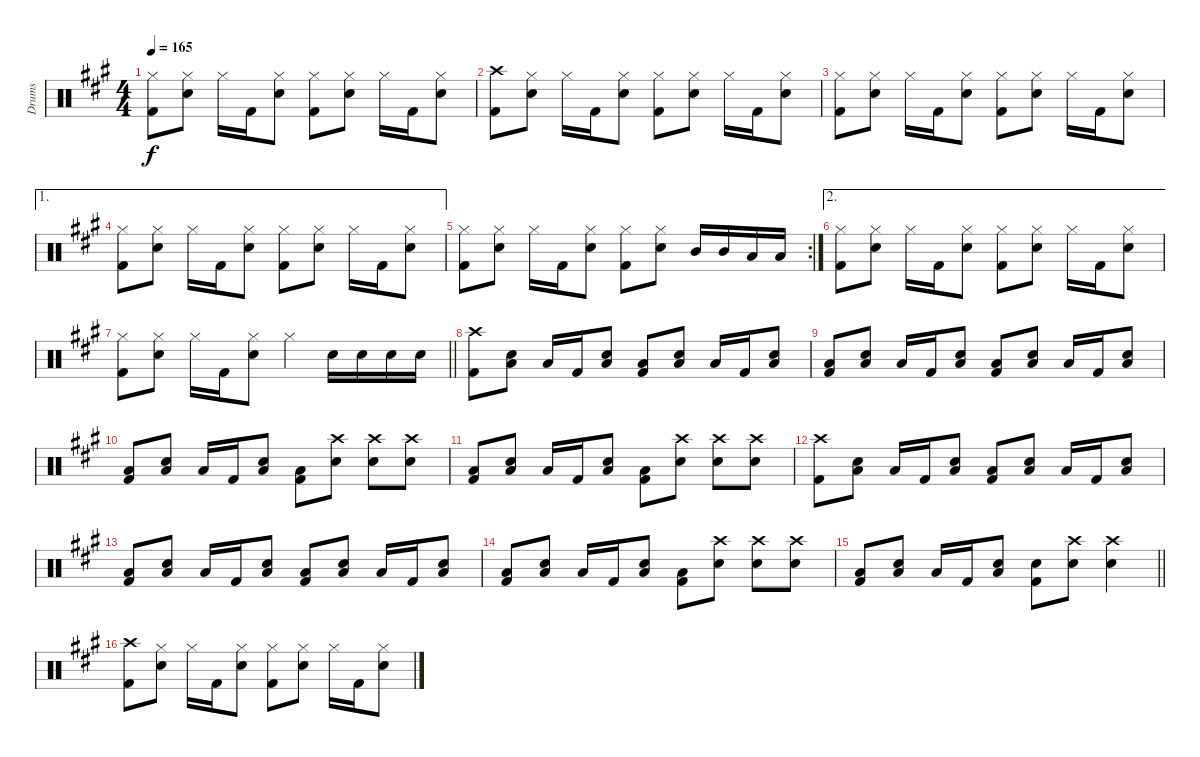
\track ("Drums" "Drums") {instrument percussion}
\staff {score}
\articulation defaults
\ts (4 4)
\tempo 165
\clef neutral
\ks a
("Hi-Hat (closed)" "Kick (hit) 2").8{dy f} ("Hi-Hat (closed)" "Snare (hit) 2").8 "Hi-Hat (closed)".16 "Kick (hit) 2".16 ("Hi-Hat (closed)" "Snare (hit) 2").8 ("Hi-Hat (closed)" "Kick (hit) 2").8 ("Hi-Hat (closed)" "Snare (hit) 2").8 "Hi-Hat (closed)".16 "Kick (hit) 2".16 ("Hi-Hat (closed)" "Snare (hit) 2").8 |
("Crash high (hit)" "Kick (hit) 2").8 ("Hi-Hat (closed)" "Snare (hit) 2").8 "Hi-Hat (closed)".16 "Kick (hit) 2".16 ("Hi-Hat (closed)" "Snare (hit) 2").8 ("Hi-Hat (closed)" "Kick (hit) 2").8 ("Hi-Hat (closed)" "Snare (hit) 2").8 "Hi-Hat (closed)".16 "Kick (hit) 2".16 ("Hi-Hat (closed)" "Snare (hit) 2").8 |
("Hi-Hat (closed)" "Kick (hit) 2").8 ("Hi-Hat (closed)" "Snare (hit) 2").8 "Hi-Hat (closed)".16 "Kick (hit) 2".16 ("Hi-Hat (closed)" "Snare (hit) 2").8 ("Hi-Hat (closed)" "Kick (hit) 2").8 ("Hi-Hat (closed)" "Snare (hit) 2").8 "Hi-Hat (closed)".16 "Kick (hit) 2".16 ("Hi-Hat (closed)" "Snare (hit) 2").8 |
\ae 1
("Hi-Hat (closed)" "Kick (hit) 2").8 ("Hi-Hat (closed)" "Snare (hit) 2").8 "Hi-Hat (closed)".16 "Kick (hit) 2".16 ("Hi-Hat (closed)" "Snare (hit) 2").8 ("Hi-Hat (closed)" "Kick (hit) 2").8 ("Hi-Hat (closed)" "Snare (hit) 2").8 "Hi-Hat (closed)".16 "Kick (hit) 2".16 ("Hi-Hat (closed)" "Snare (hit) 2").8 |
\rc 2
("Hi-Hat (closed)" "Kick (hit) 2").8 ("Hi-Hat (closed)" "Snare (hit) 2").8 "Hi-Hat (closed)".16 "Kick (hit) 2".16 ("Hi-Hat (closed)" "Snare (hit) 2").8 ("Hi-Hat (closed)" "Kick (hit) 2").8 ("Hi-Hat (closed)" "Snare (hit) 2").8 "Mid Tom (hit)".16 "Mid Tom (hit)".16 "Low Tom (hit)".16 "Low Tom (hit)".16 |
\ae 2
("Hi-Hat (closed)" "Kick (hit) 2").8 ("Hi-Hat (closed)" "Snare (hit) 2").8 "Hi-Hat (closed)".16 "Kick (hit) 2".16 ("Hi-Hat (closed)" "Snare (hit) 2").8 ("Hi-Hat (closed)" "Kick (hit) 2").8 ("Hi-Hat (closed)" "Snare (hit) 2").8 "Hi-Hat (closed)".16 "Kick (hit) 2".16 ("Hi-Hat (closed)" "Snare (hit) 2").8 |
\barLineRight lightlight
("Hi-Hat (closed)" "Kick (hit) 2").8 ("Hi-Hat (closed)" "Snare (hit) 2").8 "Hi-Hat (closed)".16 "Kick (hit) 2".16 ("Hi-Hat (closed)" "Snare (hit) 2").8 "Hi-Hat (closed)".4 "Snare (hit) 2".16 "Snare (hit) 2".16 "Snare (hit) 2".16 "Snare (hit) 2".16 |
("Crash high (hit)" "Kick (hit) 2").8 ("Snare (hit) 2" "Low Floor Tom (hit)").8 "Low Floor Tom (hit)".16 "Kick (hit) 2".16 ("Snare (hit) 2" "Low Floor Tom (hit)").8 ("Low Floor Tom (hit)" "Kick (hit) 2").8 ("Snare (hit) 2" "Low Floor Tom (hit)").8 "Low Floor Tom (hit)".16 "Kick (hit) 2".16 ("Snare (hit) 2" "Low Floor Tom (hit)").8 |
("Low Floor Tom (hit)" "Kick (hit) 2").8 ("Snare (hit) 2" "Low Floor Tom (hit)").8 "Low Floor Tom (hit)".16 "Kick (hit) 2".16 ("Snare (hit) 2" "Low Floor Tom (hit)").8 ("Low Floor Tom (hit)" "Kick (hit) 2").8 ("Snare (hit) 2" "Low Floor Tom (hit)").8 "Low Floor Tom (hit)".16 "Kick (hit) 2".16 ("Snare (hit) 2" "Low Floor Tom (hit)").8 |
("Low Floor Tom (hit)" "Kick (hit) 2").8 ("Snare (hit) 2" "Low Floor Tom (hit)").8 "Low Floor Tom (hit)".16 "Kick (hit) 2".16 ("Snare (hit) 2" "Low Floor Tom (hit)").8 ("Low Floor Tom (hit)" "Kick (hit) 2").8 ("Crash high (hit)" "Snare (hit) 2").8 ("Crash high (hit)" "Snare (hit) 2").8 ("Crash high (hit)" "Snare (hit) 2").8 |
("Low Floor Tom (hit)" "Kick (hit) 2").8 ("Snare (hit) 2" "Low Floor Tom (hit)").8 "Low Floor Tom (hit)".16 "Kick (hit) 2".16 ("Snare (hit) 2" "Low Floor Tom (hit)").8 ("Low Floor Tom (hit)" "Kick (hit) 2").8 ("Crash high (hit)" "Snare (hit) 2").8 ("Crash high (hit)" "Snare (hit) 2").8 ("Crash high (hit)" "Snare (hit) 2").8 |
("Crash high (hit)" "Kick (hit) 2").8 ("Snare (hit) 2" "Low Floor Tom (hit)").8 "Low Floor Tom (hit)".16 "Kick (hit) 2".16 ("Snare (hit) 2" "Low Floor Tom (hit)").8 ("Low Floor Tom (hit)" "Kick (hit) 2").8 ("Snare (hit) 2" "Low Floor Tom (hit)").8 "Low Floor Tom (hit)".16 "Kick (hit) 2".16 ("Snare (hit) 2" "Low Floor Tom (hit)").8 |
("Low Floor Tom (hit)" "Kick (hit) 2").8 ("Snare (hit) 2" "Low Floor Tom (hit)").8 "Low Floor Tom (hit)".16 "Kick (hit) 2".16 ("Snare (hit) 2" "Low Floor Tom (hit)").8 ("Low Floor Tom (hit)" "Kick (hit) 2").8 ("Snare (hit) 2" "Low Floor Tom (hit)").8 "Low Floor Tom (hit)".16 "Kick (hit) 2".16 ("Snare (hit) 2" "Low Floor Tom (hit)").8 |
("Low Floor Tom (hit)" "Kick (hit) 2").8 ("Snare (hit) 2" "Low Floor Tom (hit)").8 "Low Floor Tom (hit)".16 "Kick (hit) 2".16 ("Snare (hit) 2" "Low Floor Tom (hit)").8 ("Low Floor Tom (hit)" "Kick (hit) 2").8 ("Crash high (hit)" "Snare (hit) 2").8 ("Crash high (hit)" "Snare (hit) 2").8 ("Crash high (hit)" "Snare (hit) 2").8 |
\barLineRight lightlight
("Low Floor Tom (hit)" "Kick (hit) 2").8 ("Snare (hit) 2" "Low Floor Tom (hit)").8 "Low Floor Tom (hit)".16 "Kick (hit) 2".16 ("Snare (hit) 2" "Low Floor Tom (hit)").8 ("Snare (hit) 2" "Kick (hit) 2").8 ("Crash high (hit)" "Snare (hit) 2").8 ("Crash high (hit)" "Snare (hit) 2").4 |
("Crash high (hit)" "Kick (hit) 2").8 ("Hi-Hat (closed)" "Snare (hit) 2").8 "Hi-Hat (closed)".16 "Kick (hit) 2".16 ("Hi-Hat (closed)" "Snare (hit) 2").8 ("Hi-Hat (closed)" "Kick (hit) 2").8 ("Hi-Hat (closed)" "Snare (hit) 2").8 "Hi-Hat (closed)".16 "Kick (hit) 2".16 ("Hi-Hat (closed)" "Snare (hit) 2").8
